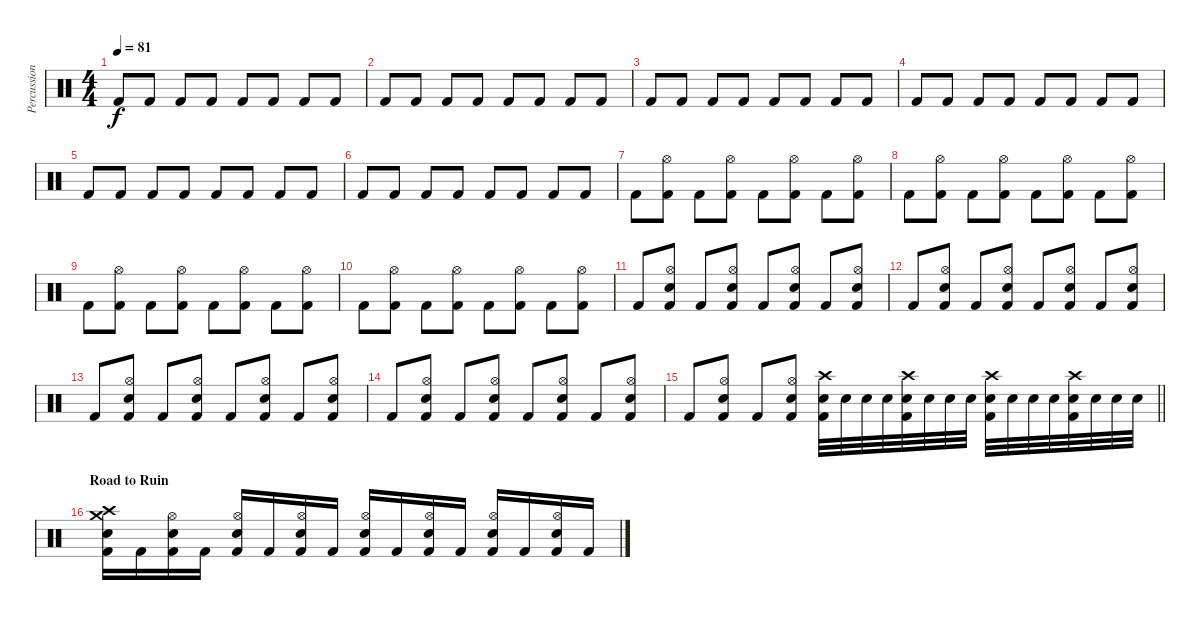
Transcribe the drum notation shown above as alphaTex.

\track ("Percussion" "Percussion") {instrument percussion}
\staff {score}
\articulation defaults
\ts (4 4)
\tempo 81
\clef neutral
\ks c "Kick (hit) 2".8{dy f} "Kick (hit) 2".8 "Kick (hit) 2".8 "Kick (hit) 2".8 "Kick (hit) 2".8 "Kick (hit) 2".8 "Kick (hit) 2".8 "Kick (hit) 2".8
|
"Kick (hit) 2".8 "Kick (hit) 2".8 "Kick (hit) 2".8 "Kick (hit) 2".8 "Kick (hit) 2".8 "Kick (hit) 2".8 "Kick (hit) 2".8 "Kick (hit) 2".8 |
"Kick (hit) 2".8 "Kick (hit) 2".8 "Kick (hit) 2".8 "Kick (hit) 2".8 "Kick (hit) 2".8 "Kick (hit) 2".8 "Kick (hit) 2".8 "Kick (hit) 2".8 |
"Kick (hit) 2".8 "Kick (hit) 2".8 "Kick (hit) 2".8 "Kick (hit) 2".8 "Kick (hit) 2".8 "Kick (hit) 2".8 "Kick (hit) 2".8 "Kick (hit) 2".8 |
"Kick (hit) 2".8 "Kick (hit) 2".8 "Kick (hit) 2".8 "Kick (hit) 2".8 "Kick (hit) 2".8 "Kick (hit) 2".8 "Kick (hit) 2".8 "Kick (hit) 2".8 |
"Kick (hit) 2".8 "Kick (hit) 2".8 "Kick (hit) 2".8 "Kick (hit) 2".8 "Kick (hit) 2".8 "Kick (hit) 2".8 "Kick (hit) 2".8 "Kick (hit) 2".8 |
"Kick (hit) 2".8 ("Hi-Hat (open)" "Kick (hit) 2").8 "Kick (hit) 2".8 ("Hi-Hat (open)" "Kick (hit) 2").8 "Kick (hit) 2".8 ("Hi-Hat (open)" "Kick (hit) 2").8 "Kick (hit) 2".8 ("Hi-Hat (open)" "Kick (hit) 2").8 |
"Kick (hit) 2".8 ("Hi-Hat (open)" "Kick (hit) 2").8 "Kick (hit) 2".8 ("Hi-Hat (open)" "Kick (hit) 2").8 "Kick (hit) 2".8 ("Hi-Hat (open)" "Kick (hit) 2").8 "Kick (hit) 2".8 ("Hi-Hat (open)" "Kick (hit) 2").8 |
"Kick (hit) 2".8 ("Hi-Hat (open)" "Kick (hit) 2").8 "Kick (hit) 2".8 ("Hi-Hat (open)" "Kick (hit) 2").8 "Kick (hit) 2".8 ("Hi-Hat (open)" "Kick (hit) 2").8 "Kick (hit) 2".8 ("Hi-Hat (open)" "Kick (hit) 2").8 |
"Kick (hit) 2".8 ("Hi-Hat (open)" "Kick (hit) 2").8 "Kick (hit) 2".8 ("Hi-Hat (open)" "Kick (hit) 2").8 "Kick (hit) 2".8 ("Hi-Hat (open)" "Kick (hit) 2").8 "Kick (hit) 2".8 ("Hi-Hat (open)" "Kick (hit) 2").8 |
"Kick (hit) 2".8 ("Hi-Hat (open)" "Electric Snare (hit)" "Kick (hit) 2").8 "Kick (hit) 2".8 ("Hi-Hat (open)" "Electric Snare (hit)" "Kick (hit) 2").8 "Kick (hit) 2".8 ("Hi-Hat (open)" "Electric Snare (hit)" "Kick (hit) 2").8 "Kick (hit) 2".8 ("Hi-Hat (open)" "Electric Snare (hit)" "Kick (hit) 2").8 |
"Kick (hit) 2".8 ("Hi-Hat (open)" "Electric Snare (hit)" "Kick (hit) 2").8 "Kick (hit) 2".8 ("Hi-Hat (open)" "Electric Snare (hit)" "Kick (hit) 2").8 "Kick (hit) 2".8 ("Hi-Hat (open)" "Electric Snare (hit)" "Kick (hit) 2").8 "Kick (hit) 2".8 ("Hi-Hat (open)" "Electric Snare (hit)" "Kick (hit) 2").8 |
"Kick (hit) 2".8 ("Hi-Hat (open)" "Electric Snare (hit)" "Kick (hit) 2").8 "Kick (hit) 2".8 ("Hi-Hat (open)" "Electric Snare (hit)" "Kick (hit) 2").8 "Kick (hit) 2".8 ("Hi-Hat (open)" "Electric Snare (hit)" "Kick (hit) 2").8 "Kick (hit) 2".8 ("Hi-Hat (open)" "Electric Snare (hit)" "Kick (hit) 2").8 |
"Kick (hit) 2".8 ("Hi-Hat (open)" "Electric Snare (hit)" "Kick (hit) 2").8 "Kick (hit) 2".8 ("Hi-Hat (open)" "Electric Snare (hit)" "Kick (hit) 2").8 "Kick (hit) 2".8 ("Hi-Hat (open)" "Electric Snare (hit)" "Kick (hit) 2").8 "Kick (hit) 2".8 ("Hi-Hat (open)" "Electric Snare (hit)" "Kick (hit) 2").8 |
\barLineRight lightlight "Kick (hit) 2".8
("Hi-Hat (open)" "Electric Snare (hit)" "Kick (hit) 2").8 "Kick (hit) 2".8 ("Hi-Hat (open)" "Electric Snare (hit)" "Kick (hit) 2").8 ("Crash high (hit)" "Electric Snare (hit)" "Kick (hit) 2").32 "Electric Snare (hit)".32 "Electric Snare (hit)".32 "Electric Snare (hit)".32 ("Crash high (hit)" "Electric Snare (hit)" "Kick (hit) 2").32 "Electric Snare (hit)".32 "Electric Snare (hit)".32 "Electric Snare (hit)".32 ("Crash high (hit)" "Electric Snare (hit)" "Kick (hit) 2").32 "Electric Snare (hit)".32 "Electric Snare (hit)".32 "Electric Snare (hit)".32 ("Crash high (hit)" "Electric Snare (hit)" "Kick (hit) 2").32 "Electric Snare (hit)".32 "Electric Snare (hit)".32 "Electric Snare (hit)".32 |
\section ("" "Road to Ruin")
("Crash high (hit)" "Crash medium (hit)" "Electric Snare (hit)" "Kick (hit) 2").16 "Kick (hit) 2".16 ("Hi-Hat (open)" "Electric Snare (hit)" "Kick (hit) 2").16 "Kick (hit) 2".16 ("Hi-Hat (open)" "Electric Snare (hit)" "Kick (hit) 2").16 "Kick (hit) 2".16 ("Hi-Hat (open)" "Electric Snare (hit)" "Kick (hit) 2").16 "Kick (hit) 2".16 ("Hi-Hat (open)" "Electric Snare (hit)" "Kick (hit) 2").16 "Kick (hit) 2".16 ("Hi-Hat (open)" "Electric Snare (hit)" "Kick (hit) 2").16 "Kick (hit) 2".16 ("Hi-Hat (open)" "Electric Snare (hit)" "Kick (hit) 2").16 "Kick (hit) 2".16 ("Hi-Hat (open)" "Electric Snare (hit)" "Kick (hit) 2").16 "Kick (hit) 2".16
